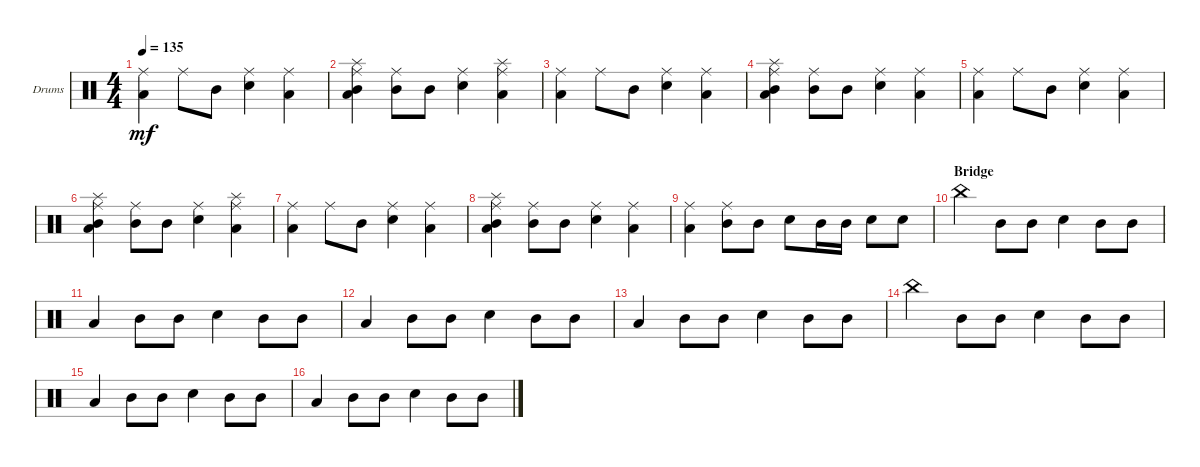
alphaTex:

\defaultSystemsLayout 4
\bracketExtendMode groupsimilarinstruments
\firstSystemTrackNameOrientation horizontal
\otherSystemsTrackNameOrientation horizontal
\track ("Drum" "Drums") {instrument percussion}
\staff {score}
\articulation defaults
\ts (4 4)
\tempo 135
\clef neutral
\scale
0.333333
\ks c
("Ride (middle)" "Low Tom (hit)").4{dy mf} "Ride (middle)".8 "Mid Tom (hit)".8 ("Ride (middle)" "Snare (hit) 2").4 ("Ride (middle)" "Low Tom (hit)").4 |
\scale
0.333333 ("Mid Tom (hit)" "Low Tom (hit)" "Ride (middle)" "Splash (hit)").4 ("Ride (middle)" "Mid Tom (hit)").8 "Mid Tom (hit)".8 ("Ride (middle)" "Snare (hit) 2").4 ("Ride (middle)" "Low Tom (hit)" "Splash (hit)").4 |
\scale
0.333333 ("Ride (middle)" "Low Tom (hit)").4 "Ride (middle)".8 "Mid Tom (hit)".8 ("Ride (middle)" "Snare (hit) 2").4 ("Ride (middle)" "Low Tom (hit)").4 |
("Mid Tom (hit)" "Low Tom (hit)" "Ride (middle)" "Splash (hit)").4 ("Ride (middle)" "Mid Tom (hit)").8 "Mid Tom (hit)".8 ("Ride (middle)" "Snare (hit) 2").4 ("Ride (middle)" "Low Tom (hit)").4 |
\scale
0.333333 ("Ride (middle)" "Low Tom (hit)").4 "Ride (middle)".8 "Mid Tom (hit)".8 ("Ride (middle)" "Snare (hit) 2").4 ("Ride (middle)" "Low Tom (hit)").4 |
\scale
0.333333 ("Mid Tom (hit)" "Low Tom (hit)" "Ride (middle)" "Splash (hit)").4 ("Ride (middle)" "Mid Tom (hit)").8 "Mid Tom (hit)".8 ("Ride (middle)" "Snare (hit) 2").4 ("Ride (middle)" "Low Tom (hit)" "Splash (hit)").4 |
\scale
0.333333 ("Ride (middle)" "Low Tom (hit)").4 "Ride (middle)".8 "Mid Tom (hit)".8 ("Ride (middle)" "Snare (hit) 2").4 ("Ride (middle)" "Low Tom (hit)").4 |
\scale
0.333333 ("Mid Tom (hit)" "Low Tom (hit)" "Ride (middle)" "Splash (hit)").4 ("Ride (middle)" "Mid Tom (hit)").8 "Mid Tom (hit)".8 ("Ride (middle)" "Snare (hit) 2").4 ("Ride (middle)" "Low Tom (hit)").4 |
\scale
0.333333 ("Low Tom (hit)" "Ride (middle)").4 ("Mid Tom (hit)" "Ride (middle)").8 "Mid Tom (hit)".8 "Snare (hit) 2".8 "Mid Tom (hit)".16 "Mid Tom (hit)".16 "Snare (hit) 2".8 "Snare (hit) 2".8 |
\section ("" "Bridge")
\scale
0.333333 "China (hit)".4 "Mid Tom (hit)".8 "Mid Tom (hit)".8 "Snare (hit) 2".4 "Mid Tom (hit)".8 "Mid Tom (hit)".8 |
\scale
0.333333 "Low Tom (hit)".4 "Mid Tom (hit)".8 "Mid Tom (hit)".8 "Snare (hit) 2".4 "Mid Tom (hit)".8 "Mid Tom (hit)".8 |
\scale
0.333333 "Low Tom (hit)".4 "Mid Tom (hit)".8 "Mid Tom (hit)".8 "Snare (hit) 2".4 "Mid Tom (hit)".8 "Mid Tom (hit)".8 |
\scale
0.333333 "Low Tom (hit)".4 "Mid Tom (hit)".8 "Mid Tom (hit)".8 "Snare (hit) 2".4 "Mid Tom (hit)".8 "Mid Tom (hit)".8 |
\scale
0.333333 "China (hit)".4 "Mid Tom (hit)".8 "Mid Tom (hit)".8 "Snare (hit) 2".4 "Mid Tom (hit)".8 "Mid Tom (hit)".8 |
\scale
0.333333 "Low Tom (hit)".4 "Mid Tom (hit)".8 "Mid Tom (hit)".8 "Snare (hit) 2".4 "Mid Tom (hit)".8 "Mid Tom (hit)".8 |
\scale
0.333333 "Low Tom (hit)".4 "Mid Tom (hit)".8 "Mid Tom (hit)".8 "Snare (hit) 2".4 "Mid Tom (hit)".8 "Mid Tom (hit)".8
